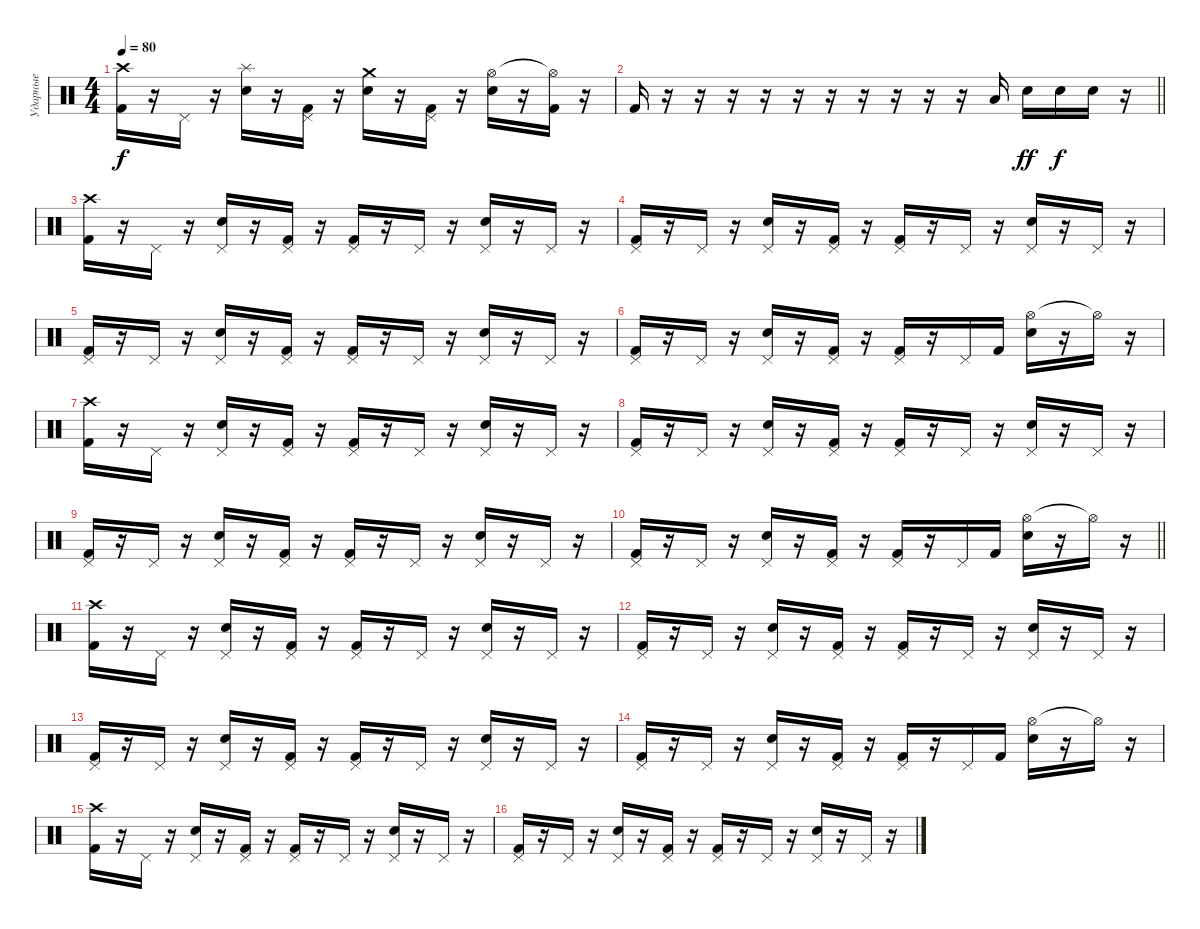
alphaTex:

\track ("Ударные" "Ударные") {instrument percussion}
\staff {score}
\articulation defaults
\ts (4 4)
\tempo 80
\clef neutral
\ks c
("Crash high (hit)" "Kick (hit) 2").16{dy f} r.16 "Pedal Hi-Hat (hit)".16 r.16 ("Splash (hit)" "Electric Snare (hit)").16 r.16 ("Pedal Hi-Hat (hit)" "Kick (hit) 2").16 r.16 ("Crash medium (hit)" "Electric Snare (hit)").16 r.16 ("Pedal Hi-Hat (hit)" "Kick (hit) 2").16 r.16 ("Hi-Hat (open)" "Electric Snare (hit)").16 r.16 ("Hi-Hat (open)"{t} "Kick (hit) 2").16 r.16 |
\barLineRight lightlight "Kick (hit) 2".16
r.16 r.16 r.16 r.16 r.16 r.16 r.16 r.16 r.16 r.16 "Low Tom (hit)".16 "Electric Snare (hit)".16{dy ff} "Electric Snare (hit)".16{dy f} "Electric Snare (hit)".16 r.16 |
("Crash high (hit)" "Kick (hit) 2").16 r.16 "Pedal Hi-Hat (hit)".16 r.16 ("Pedal Hi-Hat (hit)" "Electric Snare (hit)").16 r.16 ("Pedal Hi-Hat (hit)" "Kick (hit) 2").16 r.16 ("Pedal Hi-Hat (hit)" "Kick (hit) 2").16 r.16 "Pedal Hi-Hat (hit)".16 r.16 ("Pedal Hi-Hat (hit)" "Electric Snare (hit)").16 r.16 "Pedal Hi-Hat (hit)".16 r.16 |
("Pedal Hi-Hat (hit)" "Kick (hit) 2").16 r.16 "Pedal Hi-Hat (hit)".16 r.16 ("Pedal Hi-Hat (hit)" "Electric Snare (hit)").16 r.16 ("Pedal Hi-Hat (hit)" "Kick (hit) 2").16 r.16 ("Pedal Hi-Hat (hit)" "Kick (hit) 2").16 r.16 "Pedal Hi-Hat (hit)".16 r.16 ("Pedal Hi-Hat (hit)" "Electric Snare (hit)").16 r.16 "Pedal Hi-Hat (hit)".16 r.16 |
("Pedal Hi-Hat (hit)" "Kick (hit) 2").16 r.16 "Pedal Hi-Hat (hit)".16 r.16 ("Pedal Hi-Hat (hit)" "Electric Snare (hit)").16 r.16 ("Pedal Hi-Hat (hit)" "Kick (hit) 2").16 r.16 ("Pedal Hi-Hat (hit)" "Kick (hit) 2").16 r.16 "Pedal Hi-Hat (hit)".16 r.16 ("Pedal Hi-Hat (hit)" "Electric Snare (hit)").16 r.16 "Pedal Hi-Hat (hit)".16 r.16 |
("Pedal Hi-Hat (hit)" "Kick (hit) 2").16 r.16 "Pedal Hi-Hat (hit)".16 r.16 ("Pedal Hi-Hat (hit)" "Electric Snare (hit)").16 r.16 ("Pedal Hi-Hat (hit)" "Kick (hit) 2").16 r.16 ("Pedal Hi-Hat (hit)" "Kick (hit) 2").16 r.16 "Pedal Hi-Hat (hit)".16 "Kick (hit) 2".16 ("Hi-Hat (open)" "Electric Snare (hit)").16 r.16 "Hi-Hat (open)"{t}.16 r.16 |
("Crash high (hit)" "Kick (hit) 2").16 r.16 "Pedal Hi-Hat (hit)".16 r.16 ("Pedal Hi-Hat (hit)" "Electric Snare (hit)").16 r.16 ("Pedal Hi-Hat (hit)" "Kick (hit) 2").16 r.16 ("Pedal Hi-Hat (hit)" "Kick (hit) 2").16 r.16 "Pedal Hi-Hat (hit)".16 r.16 ("Pedal Hi-Hat (hit)" "Electric Snare (hit)").16 r.16 "Pedal Hi-Hat (hit)".16 r.16 |
("Pedal Hi-Hat (hit)" "Kick (hit) 2").16 r.16 "Pedal Hi-Hat (hit)".16 r.16 ("Pedal Hi-Hat (hit)" "Electric Snare (hit)").16 r.16 ("Pedal Hi-Hat (hit)" "Kick (hit) 2").16 r.16 ("Pedal Hi-Hat (hit)" "Kick (hit) 2").16 r.16 "Pedal Hi-Hat (hit)".16 r.16 ("Pedal Hi-Hat (hit)" "Electric Snare (hit)").16 r.16 "Pedal Hi-Hat (hit)".16 r.16 |
("Pedal Hi-Hat (hit)" "Kick (hit) 2").16 r.16 "Pedal Hi-Hat (hit)".16 r.16 ("Pedal Hi-Hat (hit)" "Electric Snare (hit)").16 r.16 ("Pedal Hi-Hat (hit)" "Kick (hit) 2").16 r.16 ("Pedal Hi-Hat (hit)" "Kick (hit) 2").16 r.16 "Pedal Hi-Hat (hit)".16 r.16 ("Pedal Hi-Hat (hit)" "Electric Snare (hit)").16 r.16 "Pedal Hi-Hat (hit)".16 r.16 |
\barLineRight lightlight
("Pedal Hi-Hat (hit)" "Kick (hit) 2").16 r.16 "Pedal Hi-Hat (hit)".16 r.16 ("Pedal Hi-Hat (hit)" "Electric Snare (hit)").16 r.16 ("Pedal Hi-Hat (hit)" "Kick (hit) 2").16 r.16 ("Pedal Hi-Hat (hit)" "Kick (hit) 2").16 r.16 "Pedal Hi-Hat (hit)".16 "Kick (hit) 2".16 ("Hi-Hat (open)" "Electric Snare (hit)").16 r.16 "Hi-Hat (open)"{t}.16 r.16 |
("Crash high (hit)" "Kick (hit) 2").16 r.16 "Pedal Hi-Hat (hit)".16 r.16 ("Pedal Hi-Hat (hit)" "Electric Snare (hit)").16 r.16 ("Pedal Hi-Hat (hit)" "Kick (hit) 2").16 r.16 ("Pedal Hi-Hat (hit)" "Kick (hit) 2").16 r.16 "Pedal Hi-Hat (hit)".16 r.16 ("Pedal Hi-Hat (hit)" "Electric Snare (hit)").16 r.16 "Pedal Hi-Hat (hit)".16 r.16 |
("Pedal Hi-Hat (hit)" "Kick (hit) 2").16 r.16 "Pedal Hi-Hat (hit)".16 r.16 ("Pedal Hi-Hat (hit)" "Electric Snare (hit)").16 r.16 ("Pedal Hi-Hat (hit)" "Kick (hit) 2").16 r.16 ("Pedal Hi-Hat (hit)" "Kick (hit) 2").16 r.16 "Pedal Hi-Hat (hit)".16 r.16 ("Pedal Hi-Hat (hit)" "Electric Snare (hit)").16 r.16 "Pedal Hi-Hat (hit)".16 r.16 |
("Pedal Hi-Hat (hit)" "Kick (hit) 2").16 r.16 "Pedal Hi-Hat (hit)".16 r.16 ("Pedal Hi-Hat (hit)" "Electric Snare (hit)").16 r.16 ("Pedal Hi-Hat (hit)" "Kick (hit) 2").16 r.16 ("Pedal Hi-Hat (hit)" "Kick (hit) 2").16 r.16 "Pedal Hi-Hat (hit)".16 r.16 ("Pedal Hi-Hat (hit)" "Electric Snare (hit)").16 r.16 "Pedal Hi-Hat (hit)".16 r.16 |
("Pedal Hi-Hat (hit)" "Kick (hit) 2").16 r.16 "Pedal Hi-Hat (hit)".16 r.16 ("Pedal Hi-Hat (hit)" "Electric Snare (hit)").16 r.16 ("Pedal Hi-Hat (hit)" "Kick (hit) 2").16 r.16 ("Pedal Hi-Hat (hit)" "Kick (hit) 2").16 r.16 "Pedal Hi-Hat (hit)".16 "Kick (hit) 2".16 ("Hi-Hat (open)" "Electric Snare (hit)").16 r.16 "Hi-Hat (open)"{t}.16 r.16 |
("Crash high (hit)" "Kick (hit) 2").16 r.16 "Pedal Hi-Hat (hit)".16 r.16 ("Pedal Hi-Hat (hit)" "Electric Snare (hit)").16 r.16 ("Pedal Hi-Hat (hit)" "Kick (hit) 2").16 r.16 ("Pedal Hi-Hat (hit)" "Kick (hit) 2").16 r.16 "Pedal Hi-Hat (hit)".16 r.16 ("Pedal Hi-Hat (hit)" "Electric Snare (hit)").16 r.16 "Pedal Hi-Hat (hit)".16 r.16 |
("Pedal Hi-Hat (hit)" "Kick (hit) 2").16 r.16 "Pedal Hi-Hat (hit)".16 r.16 ("Pedal Hi-Hat (hit)" "Electric Snare (hit)").16 r.16 ("Pedal Hi-Hat (hit)" "Kick (hit) 2").16 r.16 ("Pedal Hi-Hat (hit)" "Kick (hit) 2").16 r.16 "Pedal Hi-Hat (hit)".16 r.16 ("Pedal Hi-Hat (hit)" "Electric Snare (hit)").16 r.16 "Pedal Hi-Hat (hit)".16 r.16
